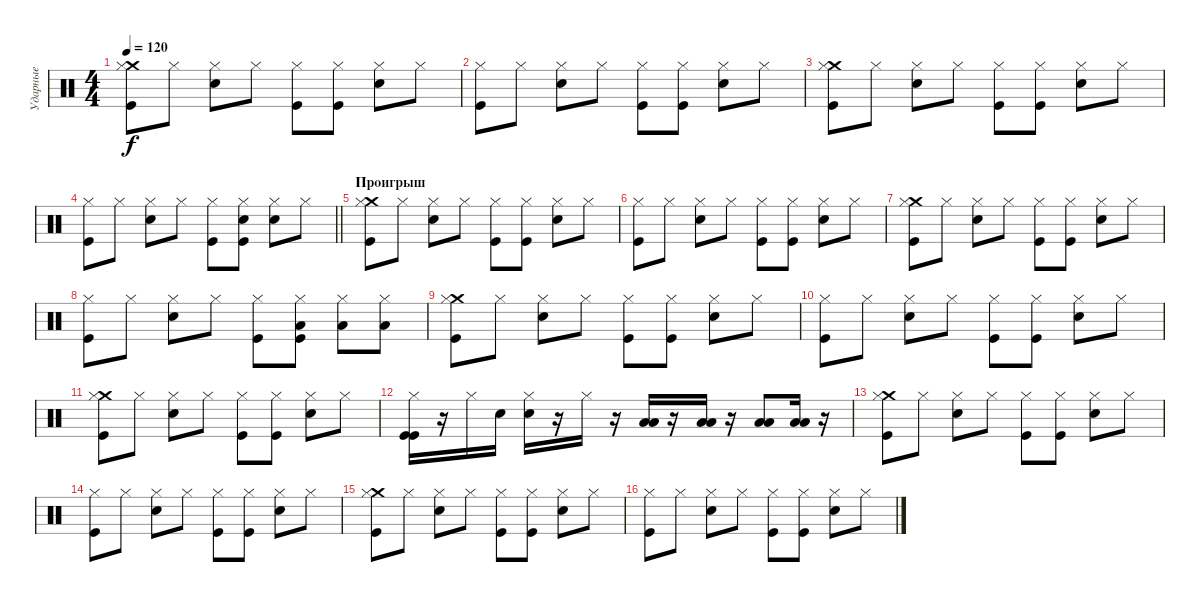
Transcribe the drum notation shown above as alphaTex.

\track ("Ударные" "Ударные") {instrument percussion}
\staff {score}
\articulation defaults
\ts (4 4)
\tempo 120
\clef neutral
\ks c
("Crash medium (hit)" "Hi-Hat (closed)" "Kick (hit)").8{dy f} "Hi-Hat (closed)".8 ("Snare (hit) 2" "Hi-Hat (closed)").8 "Hi-Hat (closed)".8 ("Kick (hit)" "Hi-Hat (closed)").8 ("Kick (hit)" "Hi-Hat (closed)").8 ("Snare (hit) 2" "Hi-Hat (closed)").8 "Hi-Hat (closed)".8 |
("Kick (hit)" "Hi-Hat (closed)").8 "Hi-Hat (closed)".8 ("Snare (hit) 2" "Hi-Hat (closed)").8 "Hi-Hat (closed)".8 ("Kick (hit)" "Hi-Hat (closed)").8 ("Kick (hit)" "Hi-Hat (closed)").8 ("Snare (hit) 2" "Hi-Hat (closed)").8 "Hi-Hat (closed)".8 |
("Crash medium (hit)" "Hi-Hat (closed)" "Kick (hit)").8 "Hi-Hat (closed)".8 ("Snare (hit) 2" "Hi-Hat (closed)").8 "Hi-Hat (closed)".8 ("Kick (hit)" "Hi-Hat (closed)").8 ("Kick (hit)" "Hi-Hat (closed)").8 ("Snare (hit) 2" "Hi-Hat (closed)").8 "Hi-Hat (closed)".8 |
\barLineRight lightlight
("Kick (hit)" "Hi-Hat (closed)").8 "Hi-Hat (closed)".8 ("Snare (hit) 2" "Hi-Hat (closed)").8 "Hi-Hat (closed)".8 ("Kick (hit)" "Hi-Hat (closed)").8 ("Kick (hit)" "Hi-Hat (closed)" "Snare (hit) 2").8 ("Snare (hit) 2" "Hi-Hat (closed)").8 "Hi-Hat (closed)".8 |
\section ("" "Проигрыш")
("Crash medium (hit)" "Hi-Hat (closed)" "Kick (hit)").8 "Hi-Hat (closed)".8 ("Snare (hit) 2" "Hi-Hat (closed)").8 "Hi-Hat (closed)".8 ("Kick (hit)" "Hi-Hat (closed)").8 ("Kick (hit)" "Hi-Hat (closed)").8 ("Snare (hit) 2" "Hi-Hat (closed)").8 "Hi-Hat (closed)".8 |
("Kick (hit)" "Hi-Hat (closed)").8 "Hi-Hat (closed)".8 ("Snare (hit) 2" "Hi-Hat (closed)").8 "Hi-Hat (closed)".8 ("Kick (hit)" "Hi-Hat (closed)").8 ("Kick (hit)" "Hi-Hat (closed)").8 ("Snare (hit) 2" "Hi-Hat (closed)").8 "Hi-Hat (closed)".8 |
("Crash medium (hit)" "Hi-Hat (closed)" "Kick (hit)").8 "Hi-Hat (closed)".8 ("Snare (hit) 2" "Hi-Hat (closed)").8 "Hi-Hat (closed)".8 ("Kick (hit)" "Hi-Hat (closed)").8 ("Kick (hit)" "Hi-Hat (closed)").8 ("Snare (hit) 2" "Hi-Hat (closed)").8 "Hi-Hat (closed)".8 |
("Kick (hit)" "Hi-Hat (closed)").8 "Hi-Hat (closed)".8 ("Snare (hit) 2" "Hi-Hat (closed)").8 "Hi-Hat (closed)".8 ("Kick (hit)" "Hi-Hat (closed)").8 ("Kick (hit)" "Hi-Hat (closed)" "Low Floor Tom (hit)").8 ("Hi-Hat (closed)" "Low Floor Tom (hit)").8 ("Hi-Hat (closed)" "Low Floor Tom (hit)").8 |
("Crash medium (hit)" "Hi-Hat (closed)" "Kick (hit)").8 "Hi-Hat (closed)".8 ("Snare (hit) 2" "Hi-Hat (closed)").8 "Hi-Hat (closed)".8 ("Kick (hit)" "Hi-Hat (closed)").8 ("Kick (hit)" "Hi-Hat (closed)").8 ("Snare (hit) 2" "Hi-Hat (closed)").8 "Hi-Hat (closed)".8 |
("Kick (hit)" "Hi-Hat (closed)").8 "Hi-Hat (closed)".8 ("Snare (hit) 2" "Hi-Hat (closed)").8 "Hi-Hat (closed)".8 ("Kick (hit)" "Hi-Hat (closed)").8 ("Kick (hit)" "Hi-Hat (closed)").8 ("Snare (hit) 2" "Hi-Hat (closed)").8 "Hi-Hat (closed)".8 |
("Crash medium (hit)" "Hi-Hat (closed)" "Kick (hit)").8 "Hi-Hat (closed)".8 ("Snare (hit) 2" "Hi-Hat (closed)").8 "Hi-Hat (closed)".8 ("Kick (hit)" "Hi-Hat (closed)").8 ("Kick (hit)" "Hi-Hat (closed)").8 ("Snare (hit) 2" "Hi-Hat (closed)").8 "Hi-Hat (closed)".8 |
("Kick (hit)" "Hi-Hat (closed)" "Kick (hit)").16 r.16 "Hi-Hat (closed)".16 "Snare (hit) 2".16 ("Hi-Hat (closed)" "Snare (hit) 2").16 r.16 "Hi-Hat (closed)".16 r.16 ("Low Tom (hit)" "Low Tom (hit)").16 r.16 ("Low Tom (hit)" "Low Tom (hit)").16 r.16 ("Low Floor Tom (hit)" "Low Floor Tom (hit)").8 ("Low Floor Tom (hit)" "Low Floor Tom (hit)").16 r.16 |
("Crash medium (hit)" "Hi-Hat (closed)" "Kick (hit)").8 "Hi-Hat (closed)".8 ("Snare (hit) 2" "Hi-Hat (closed)").8 "Hi-Hat (closed)".8 ("Kick (hit)" "Hi-Hat (closed)").8 ("Kick (hit)" "Hi-Hat (closed)").8 ("Snare (hit) 2" "Hi-Hat (closed)").8 "Hi-Hat (closed)".8 |
("Kick (hit)" "Hi-Hat (closed)").8 "Hi-Hat (closed)".8 ("Snare (hit) 2" "Hi-Hat (closed)").8 "Hi-Hat (closed)".8 ("Kick (hit)" "Hi-Hat (closed)").8 ("Kick (hit)" "Hi-Hat (closed)").8 ("Snare (hit) 2" "Hi-Hat (closed)").8 "Hi-Hat (closed)".8 |
("Crash medium (hit)" "Hi-Hat (closed)" "Kick (hit)").8 "Hi-Hat (closed)".8 ("Snare (hit) 2" "Hi-Hat (closed)").8 "Hi-Hat (closed)".8 ("Kick (hit)" "Hi-Hat (closed)").8 ("Kick (hit)" "Hi-Hat (closed)").8 ("Snare (hit) 2" "Hi-Hat (closed)").8 "Hi-Hat (closed)".8 |
("Kick (hit)" "Hi-Hat (closed)").8 "Hi-Hat (closed)".8 ("Snare (hit) 2" "Hi-Hat (closed)").8 "Hi-Hat (closed)".8 ("Kick (hit)" "Hi-Hat (closed)").8 ("Kick (hit)" "Hi-Hat (closed)").8 ("Snare (hit) 2" "Hi-Hat (closed)").8 "Hi-Hat (closed)".8
